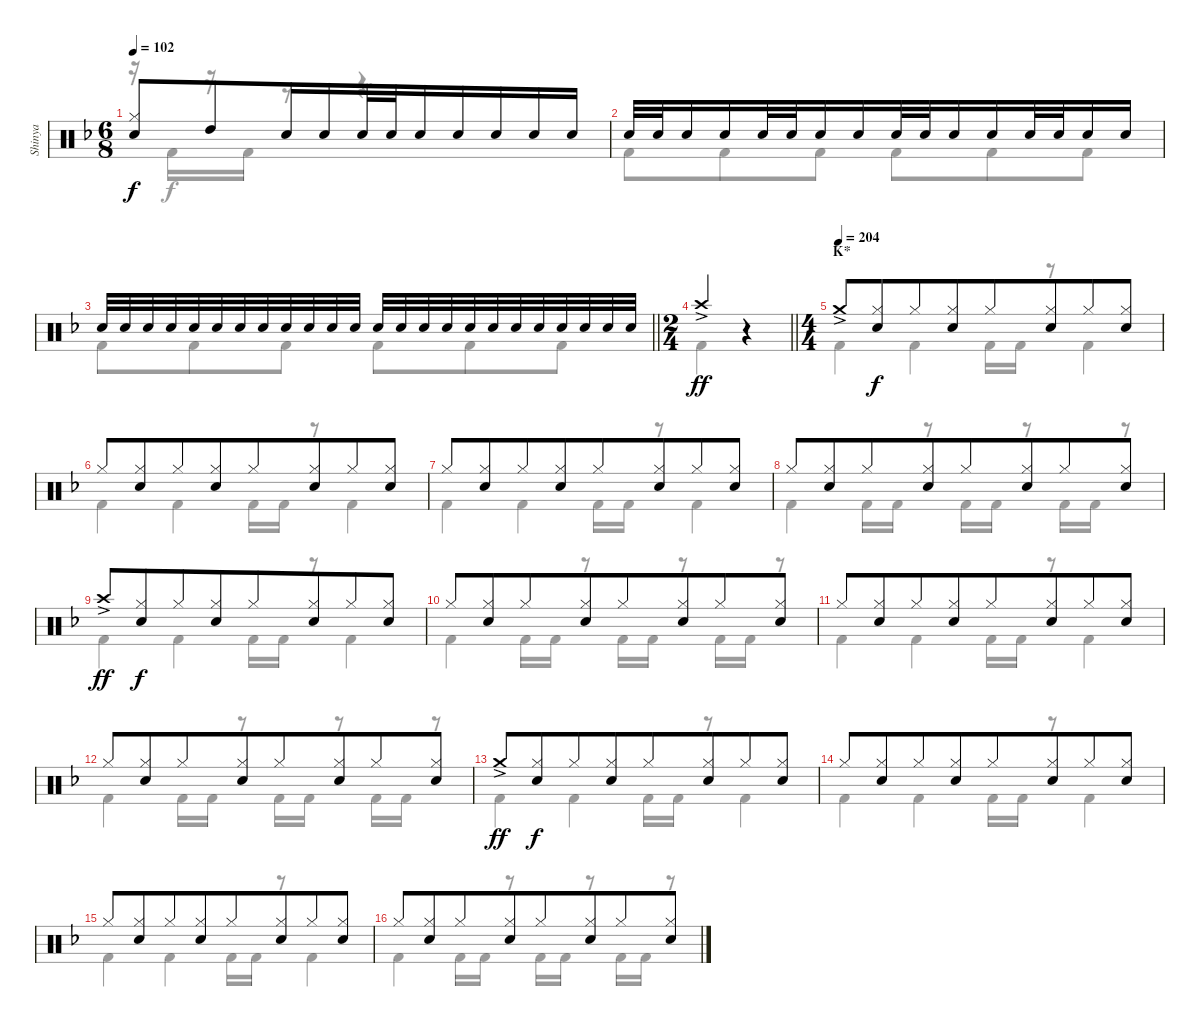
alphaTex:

\track ("Shinya" "Shinya") {mute instrument percussion}
\staff {score}
\articulation defaults
\voice
\ts (6 8)
\tempo 102
\clef neutral
\ks f
("Hi-Hat (closed)" "Snare (hit) 2").8{dy f} "High Tom (hit)".8 "Snare (hit) 2".16 "Snare (hit) 2".16{beam merge} "Snare (hit) 2".32{beam merge} "Snare (hit) 2".32{beam merge} "Snare (hit) 2".16 "Snare (hit) 2".16 "Snare (hit) 2".16{beam merge} "Snare (hit) 2".16 "Snare (hit) 2".16 |
"Snare (hit) 2".32 "Snare (hit) 2".32 "Snare (hit) 2".16 "Snare (hit) 2".16{beam merge} "Snare (hit) 2".32 "Snare (hit) 2".32 "Snare (hit) 2".16 "Snare (hit) 2".16{beam merge} "Snare (hit) 2".32 "Snare (hit) 2".32 "Snare (hit) 2".16 "Snare (hit) 2".16{beam merge} "Snare (hit) 2".32 "Snare (hit) 2".32 "Snare (hit) 2".16 "Snare (hit) 2".16 |
\barLineRight lightlight "Snare (hit) 2".32 "Snare (hit) 2".32 "Snare (hit) 2".32{beam merge} "Snare (hit) 2".32{beam merge} "Snare (hit) 2".32 "Snare (hit) 2".32 "Snare (hit) 2".32 "Snare (hit) 2".32 "Snare (hit) 2".32{beam merge} "Snare (hit) 2".32{beam merge} "Snare (hit) 2".32 "Snare (hit) 2".32 "Snare (hit) 2".32 "Snare (hit) 2".32 "Snare (hit) 2".32{beam merge} "Snare (hit) 2".32{beam merge} "Snare (hit) 2".32 "Snare (hit) 2".32 "Snare (hit) 2".32 "Snare (hit) 2".32 "Snare (hit) 2".32{beam merge} "Snare (hit) 2".32{beam merge} "Snare (hit) 2".32 "Snare (hit) 2".32
|
\ts (2 4)
\barLineRight lightlight "Crash high (hit)"{ac}.4{dy ff}
r.4 |
\ts (4 4)
\section ("" "K*")
\tempo (204)
"Crash medium (hit)"{ac}.8 ("Hi-Hat (closed)" "Snare (hit) 2").8{dy f beam merge} "Hi-Hat (closed)".8{beam merge} ("Hi-Hat (closed)" "Snare (hit) 2").8{beam merge} "Hi-Hat (closed)".8 ("Hi-Hat (closed)" "Snare (hit) 2").8{beam merge} "Hi-Hat (closed)".8 ("Hi-Hat (closed)" "Snare (hit) 2").8 |
"Hi-Hat (closed)".8 ("Hi-Hat (closed)" "Snare (hit) 2").8{beam merge} "Hi-Hat (closed)".8 ("Hi-Hat (closed)" "Snare (hit) 2").8{beam merge} "Hi-Hat (closed)".8 ("Hi-Hat (closed)" "Snare (hit) 2").8{beam merge} "Hi-Hat (closed)".8 ("Hi-Hat (closed)" "Snare (hit) 2").8 |
"Hi-Hat (closed)".8 ("Hi-Hat (closed)" "Snare (hit) 2").8{beam merge} "Hi-Hat (closed)".8 ("Hi-Hat (closed)" "Snare (hit) 2").8{beam merge} "Hi-Hat (closed)".8 ("Hi-Hat (closed)" "Snare (hit) 2").8{beam merge} "Hi-Hat (closed)".8 ("Hi-Hat (closed)" "Snare (hit) 2").8 |
"Hi-Hat (closed)".8 ("Hi-Hat (closed)" "Snare (hit) 2").8{beam merge} "Hi-Hat (closed)".8 ("Hi-Hat (closed)" "Snare (hit) 2").8{beam merge} "Hi-Hat (closed)".8 ("Hi-Hat (closed)" "Snare (hit) 2").8{beam merge} "Hi-Hat (closed)".8 ("Hi-Hat (closed)" "Snare (hit) 2").8 |
"Crash high (hit)"{ac}.8{dy ff} ("Hi-Hat (closed)" "Snare (hit) 2").8{dy f beam merge} "Hi-Hat (closed)".8{beam merge} ("Hi-Hat (closed)" "Snare (hit) 2").8{beam merge} "Hi-Hat (closed)".8 ("Hi-Hat (closed)" "Snare (hit) 2").8{beam merge} "Hi-Hat (closed)".8 ("Hi-Hat (closed)" "Snare (hit) 2").8 |
"Hi-Hat (closed)".8 ("Hi-Hat (closed)" "Snare (hit) 2").8{beam merge} "Hi-Hat (closed)".8 ("Hi-Hat (closed)" "Snare (hit) 2").8{beam merge} "Hi-Hat (closed)".8 ("Hi-Hat (closed)" "Snare (hit) 2").8{beam merge} "Hi-Hat (closed)".8 ("Hi-Hat (closed)" "Snare (hit) 2").8 |
"Hi-Hat (closed)".8 ("Hi-Hat (closed)" "Snare (hit) 2").8{beam merge} "Hi-Hat (closed)".8 ("Hi-Hat (closed)" "Snare (hit) 2").8{beam merge} "Hi-Hat (closed)".8 ("Hi-Hat (closed)" "Snare (hit) 2").8{beam merge} "Hi-Hat (closed)".8 ("Hi-Hat (closed)" "Snare (hit) 2").8 |
"Hi-Hat (closed)".8 ("Hi-Hat (closed)" "Snare (hit) 2").8{beam merge} "Hi-Hat (closed)".8 ("Hi-Hat (closed)" "Snare (hit) 2").8{beam merge} "Hi-Hat (closed)".8 ("Hi-Hat (closed)" "Snare (hit) 2").8{beam merge} "Hi-Hat (closed)".8 ("Hi-Hat (closed)" "Snare (hit) 2").8 |
"Crash medium (hit)"{ac}.8{dy ff} ("Hi-Hat (closed)" "Snare (hit) 2").8{dy f beam merge} "Hi-Hat (closed)".8{beam merge} ("Hi-Hat (closed)" "Snare (hit) 2").8{beam merge} "Hi-Hat (closed)".8 ("Hi-Hat (closed)" "Snare (hit) 2").8{beam merge} "Hi-Hat (closed)".8 ("Hi-Hat (closed)" "Snare (hit) 2").8 |
"Hi-Hat (closed)".8 ("Hi-Hat (closed)" "Snare (hit) 2").8{beam merge} "Hi-Hat (closed)".8 ("Hi-Hat (closed)" "Snare (hit) 2").8{beam merge} "Hi-Hat (closed)".8 ("Hi-Hat (closed)" "Snare (hit) 2").8{beam merge} "Hi-Hat (closed)".8 ("Hi-Hat (closed)" "Snare (hit) 2").8 |
"Hi-Hat (closed)".8 ("Hi-Hat (closed)" "Snare (hit) 2").8{beam merge} "Hi-Hat (closed)".8 ("Hi-Hat (closed)" "Snare (hit) 2").8{beam merge} "Hi-Hat (closed)".8 ("Hi-Hat (closed)" "Snare (hit) 2").8{beam merge} "Hi-Hat (closed)".8 ("Hi-Hat (closed)" "Snare (hit) 2").8 |
"Hi-Hat (closed)".8 ("Hi-Hat (closed)" "Snare (hit) 2").8{beam merge} "Hi-Hat (closed)".8 ("Hi-Hat (closed)" "Snare (hit) 2").8{beam merge} "Hi-Hat (closed)".8 ("Hi-Hat (closed)" "Snare (hit) 2").8{beam merge} "Hi-Hat (closed)".8 ("Hi-Hat (closed)" "Snare (hit) 2").8
\voice
\clef neutral
\ottava regular
\simile none
\ks f
r.16{dy f} "Kick (hit) 2".16{beam merge} r.16 "Kick (hit) 2".16 r.8 r.4{d} |
"Kick (hit) 2".8 "Kick (hit) 2".8 "Kick (hit) 2".8 "Kick (hit) 2".8 "Kick (hit) 2".8 "Kick (hit) 2".8 |
\barLineRight lightlight "Kick (hit) 2".8 "Kick (hit) 2".8 "Kick (hit) 2".8 "Kick (hit) 2".8 "Kick (hit) 2".8 "Kick (hit) 2".8
|
\barLineRight lightlight "Kick (hit) 2".4
r.4 |
"Kick (hit) 2".4 "Kick (hit) 2".4 "Kick (hit) 2".16 "Kick (hit) 2".16 r.8 "Kick (hit) 2".4 |
"Kick (hit) 2".4 "Kick (hit) 2".4 "Kick (hit) 2".16 "Kick (hit) 2".16 r.8 "Kick (hit) 2".4 |
"Kick (hit) 2".4 "Kick (hit) 2".4 "Kick (hit) 2".16 "Kick (hit) 2".16 r.8 "Kick (hit) 2".4 |
"Kick (hit) 2".4 "Kick (hit) 2".16 "Kick (hit) 2".16 r.8 "Kick (hit) 2".16 "Kick (hit) 2".16 r.8 "Kick (hit) 2".16 "Kick (hit) 2".16 r.8 |
"Kick (hit) 2".4 "Kick (hit) 2".4 "Kick (hit) 2".16 "Kick (hit) 2".16 r.8 "Kick (hit) 2".4 |
"Kick (hit) 2".4 "Kick (hit) 2".16 "Kick (hit) 2".16 r.8 "Kick (hit) 2".16 "Kick (hit) 2".16 r.8 "Kick (hit) 2".16 "Kick (hit) 2".16 r.8 |
"Kick (hit) 2".4 "Kick (hit) 2".4 "Kick (hit) 2".16 "Kick (hit) 2".16 r.8 "Kick (hit) 2".4 |
"Kick (hit) 2".4 "Kick (hit) 2".16 "Kick (hit) 2".16 r.8 "Kick (hit) 2".16 "Kick (hit) 2".16 r.8 "Kick (hit) 2".16 "Kick (hit) 2".16 r.8 |
"Kick (hit) 2".4 "Kick (hit) 2".4 "Kick (hit) 2".16 "Kick (hit) 2".16 r.8 "Kick (hit) 2".4 |
"Kick (hit) 2".4 "Kick (hit) 2".4 "Kick (hit) 2".16 "Kick (hit) 2".16 r.8 "Kick (hit) 2".4 |
"Kick (hit) 2".4 "Kick (hit) 2".4 "Kick (hit) 2".16 "Kick (hit) 2".16 r.8 "Kick (hit) 2".4 |
"Kick (hit) 2".4 "Kick (hit) 2".16 "Kick (hit) 2".16 r.8 "Kick (hit) 2".16 "Kick (hit) 2".16 r.8 "Kick (hit) 2".16 "Kick (hit) 2".16 r.8
